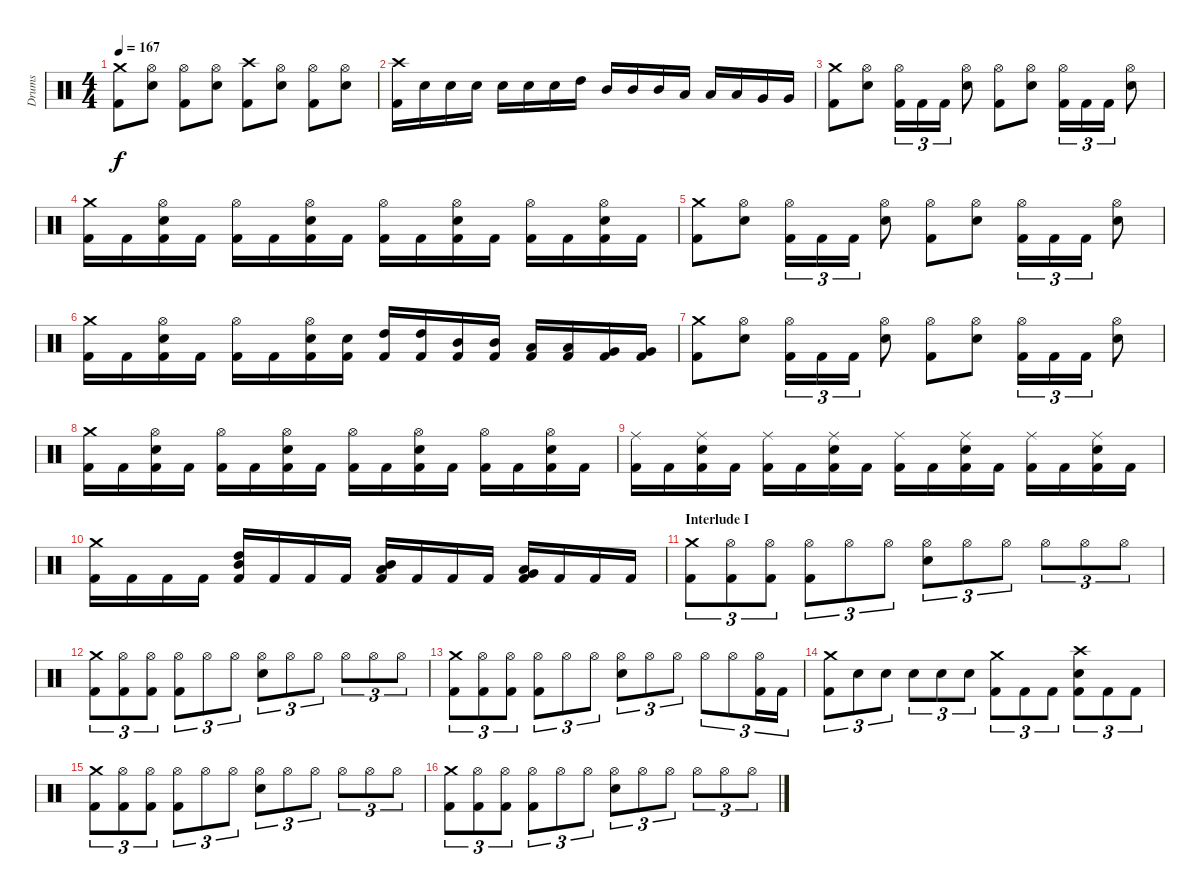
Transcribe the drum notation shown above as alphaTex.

\track ("Drums" "Drums") {instrument percussion}
\staff {score}
\articulation defaults
\ts (4 4)
\tempo 167
\clef neutral
\ks c
("Kick (hit) 2" "Crash medium (hit)").8{dy f} ("Electric Snare (hit)" "Hi-Hat (open)").8 ("Kick (hit) 2" "Hi-Hat (open)").8 ("Electric Snare (hit)" "Hi-Hat (open)").8 ("Kick (hit) 2" "Crash high (hit)").8 ("Electric Snare (hit)" "Hi-Hat (open)").8 ("Kick (hit) 2" "Hi-Hat (open)").8 ("Electric Snare (hit)" "Hi-Hat (open)").8 |
("Kick (hit) 2" "Crash high (hit)").16 "Electric Snare (hit)".16 "Electric Snare (hit)".16 "Electric Snare (hit)".16 "Electric Snare (hit)".16 "Electric Snare (hit)".16 "Electric Snare (hit)".16 "High Tom (hit)".16 "Mid Tom (hit)".16 "Mid Tom (hit)".16 "Mid Tom (hit)".16 "Low Tom (hit)".16 "Low Tom (hit)".16 "Low Tom (hit)".16 "Very Low Tom (hit)".16 "Very Low Tom (hit)".16 |
("Kick (hit) 2" "Crash medium (hit)").8 ("Electric Snare (hit)" "Hi-Hat (open)").8 ("Kick (hit) 2" "Hi-Hat (open)").16{tu (3 2)} "Kick (hit) 2".16{tu (3 2)} "Kick (hit) 2".16{tu (3 2)} ("Electric Snare (hit)" "Hi-Hat (open)").8 ("Kick (hit) 2" "Hi-Hat (open)").8 ("Electric Snare (hit)" "Hi-Hat (open)").8 ("Kick (hit) 2" "Hi-Hat (open)").16{tu (3 2)} "Kick (hit) 2".16{tu (3 2)} "Kick (hit) 2".16{tu (3 2)} ("Electric Snare (hit)" "Hi-Hat (open)").8 |
("Kick (hit) 2" "Crash medium (hit)").16 "Kick (hit) 2".16 ("Kick (hit) 2" "Electric Snare (hit)" "Hi-Hat (open)").16 "Kick (hit) 2".16 ("Kick (hit) 2" "Hi-Hat (open)").16 "Kick (hit) 2".16 ("Kick (hit) 2" "Electric Snare (hit)" "Hi-Hat (open)").16 "Kick (hit) 2".16 ("Kick (hit) 2" "Hi-Hat (open)").16 "Kick (hit) 2".16 ("Kick (hit) 2" "Electric Snare (hit)" "Hi-Hat (open)").16 "Kick (hit) 2".16 ("Kick (hit) 2" "Hi-Hat (open)").16 "Kick (hit) 2".16 ("Kick (hit) 2" "Electric Snare (hit)" "Hi-Hat (open)").16 "Kick (hit) 2".16 |
("Kick (hit) 2" "Crash medium (hit)").8 ("Electric Snare (hit)" "Hi-Hat (open)").8 ("Kick (hit) 2" "Hi-Hat (open)").16{tu (3 2)} "Kick (hit) 2".16{tu (3 2)} "Kick (hit) 2".16{tu (3 2)} ("Electric Snare (hit)" "Hi-Hat (open)").8 ("Kick (hit) 2" "Hi-Hat (open)").8 ("Electric Snare (hit)" "Hi-Hat (open)").8 ("Kick (hit) 2" "Hi-Hat (open)").16{tu (3 2)} "Kick (hit) 2".16{tu (3 2)} "Kick (hit) 2".16{tu (3 2)} ("Electric Snare (hit)" "Hi-Hat (open)").8 |
("Kick (hit) 2" "Crash medium (hit)").16 "Kick (hit) 2".16 ("Kick (hit) 2" "Electric Snare (hit)" "Hi-Hat (open)").16 "Kick (hit) 2".16 ("Kick (hit) 2" "Hi-Hat (open)").16 "Kick (hit) 2".16 ("Kick (hit) 2" "Electric Snare (hit)" "Hi-Hat (open)").16 ("Kick (hit) 2" "Electric Snare (hit)").16 ("Kick (hit) 2" "High Tom (hit)").16 ("Kick (hit) 2" "High Tom (hit)").16 ("Kick (hit) 2" "Mid Tom (hit)").16 ("Kick (hit) 2" "Mid Tom (hit)").16 ("Kick (hit) 2" "Low Tom (hit)").16 ("Kick (hit) 2" "Low Tom (hit)").16 ("Kick (hit) 2" "Very Low Tom (hit)").16 ("Kick (hit) 2" "Very Low Tom (hit)").16 |
("Kick (hit) 2" "Crash medium (hit)").8 ("Electric Snare (hit)" "Hi-Hat (open)").8 ("Kick (hit) 2" "Hi-Hat (open)").16{tu (3 2)} "Kick (hit) 2".16{tu (3 2)} "Kick (hit) 2".16{tu (3 2)} ("Electric Snare (hit)" "Hi-Hat (open)").8 ("Kick (hit) 2" "Hi-Hat (open)").8 ("Electric Snare (hit)" "Hi-Hat (open)").8 ("Kick (hit) 2" "Hi-Hat (open)").16{tu (3 2)} "Kick (hit) 2".16{tu (3 2)} "Kick (hit) 2".16{tu (3 2)} ("Electric Snare (hit)" "Hi-Hat (open)").8 |
("Kick (hit) 2" "Crash medium (hit)").16 "Kick (hit) 2".16 ("Kick (hit) 2" "Electric Snare (hit)" "Hi-Hat (open)").16 "Kick (hit) 2".16 ("Kick (hit) 2" "Hi-Hat (open)").16 "Kick (hit) 2".16 ("Kick (hit) 2" "Electric Snare (hit)" "Hi-Hat (open)").16 "Kick (hit) 2".16 ("Kick (hit) 2" "Hi-Hat (open)").16 "Kick (hit) 2".16 ("Kick (hit) 2" "Electric Snare (hit)" "Hi-Hat (open)").16 "Kick (hit) 2".16 ("Kick (hit) 2" "Hi-Hat (open)").16 "Kick (hit) 2".16 ("Kick (hit) 2" "Electric Snare (hit)" "Hi-Hat (open)").16 "Kick (hit) 2".16 |
("Kick (hit) 2" "Ride (middle)").16 "Kick (hit) 2".16 ("Kick (hit) 2" "Electric Snare (hit)" "Ride (middle)").16 "Kick (hit) 2".16 ("Kick (hit) 2" "Ride (middle)").16 "Kick (hit) 2".16 ("Kick (hit) 2" "Electric Snare (hit)" "Ride (middle)").16 "Kick (hit) 2".16 ("Kick (hit) 2" "Ride (middle)").16 "Kick (hit) 2".16 ("Kick (hit) 2" "Electric Snare (hit)" "Ride (middle)").16 "Kick (hit) 2".16 ("Kick (hit) 2" "Ride (middle)").16 "Kick (hit) 2".16 ("Kick (hit) 2" "Electric Snare (hit)" "Ride (middle)").16 "Kick (hit) 2".16 |
("Kick (hit) 2" "Crash medium (hit)").16 "Kick (hit) 2".16 "Kick (hit) 2".16 "Kick (hit) 2".16 ("Kick (hit) 2" "Mid Tom (hit)" "High Tom (hit)").16 "Kick (hit) 2".16 "Kick (hit) 2".16 "Kick (hit) 2".16 ("Kick (hit) 2" "Low Tom (hit)" "Mid Tom (hit)").16 "Kick (hit) 2".16 "Kick (hit) 2".16 "Kick (hit) 2".16 ("Kick (hit) 2" "Very Low Tom (hit)" "Low Tom (hit)").16 "Kick (hit) 2".16 "Kick (hit) 2".16 "Kick (hit) 2".16 |
\section ("" "Interlude I")
("Kick (hit) 2" "Crash medium (hit)").8{tu (3 2)} ("Kick (hit) 2" "Hi-Hat (open)").8{tu (3 2)} ("Kick (hit) 2" "Hi-Hat (open)").8{tu (3 2)} ("Kick (hit) 2" "Hi-Hat (open)").8{tu (3 2)} "Hi-Hat (open)".8{tu (3 2)} "Hi-Hat (open)".8{tu (3 2)} ("Electric Snare (hit)" "Hi-Hat (open)").8{tu (3 2)} "Hi-Hat (open)".8{tu (3 2)} "Hi-Hat (open)".8{tu (3 2)} "Hi-Hat (open)".8{tu (3 2)} "Hi-Hat (open)".8{tu (3 2)} "Hi-Hat (open)".8{tu (3 2)} |
("Kick (hit) 2" "Crash medium (hit)").8{tu (3 2)} ("Kick (hit) 2" "Hi-Hat (open)").8{tu (3 2)} ("Kick (hit) 2" "Hi-Hat (open)").8{tu (3 2)} ("Kick (hit) 2" "Hi-Hat (open)").8{tu (3 2)} "Hi-Hat (open)".8{tu (3 2)} "Hi-Hat (open)".8{tu (3 2)} ("Electric Snare (hit)" "Hi-Hat (open)").8{tu (3 2)} "Hi-Hat (open)".8{tu (3 2)} "Hi-Hat (open)".8{tu (3 2)} "Hi-Hat (open)".8{tu (3 2)} "Hi-Hat (open)".8{tu (3 2)} "Hi-Hat (open)".8{tu (3 2)} |
("Kick (hit) 2" "Crash medium (hit)").8{tu (3 2)} ("Kick (hit) 2" "Hi-Hat (open)").8{tu (3 2)} ("Kick (hit) 2" "Hi-Hat (open)").8{tu (3 2)} ("Kick (hit) 2" "Hi-Hat (open)").8{tu (3 2)} "Hi-Hat (open)".8{tu (3 2)} "Hi-Hat (open)".8{tu (3 2)} ("Electric Snare (hit)" "Hi-Hat (open)").8{tu (3 2)} "Hi-Hat (open)".8{tu (3 2)} "Hi-Hat (open)".8{tu (3 2)} "Hi-Hat (open)".8{tu (3 2)} "Hi-Hat (open)".8{tu (3 2)} ("Kick (hit) 2" "Hi-Hat (open)").16{tu (3 2)} "Kick (hit) 2".16{tu (3 2)} |
("Kick (hit) 2" "Crash medium (hit)").8{tu (3 2)} "Electric Snare (hit)".8{tu (3 2)} "Electric Snare (hit)".8{tu (3 2)} "Electric Snare (hit)".8{tu (3 2)} "Electric Snare (hit)".8{tu (3 2)} "Electric Snare (hit)".8{tu (3 2)} ("Kick (hit) 2" "Crash medium (hit)").8{tu (3 2)} "Kick (hit) 2".8{tu (3 2)} "Kick (hit) 2".8{tu (3 2)} ("Kick (hit) 2" "Electric Snare (hit)" "Crash high (hit)").8{tu (3 2)} "Kick (hit) 2".8{tu (3 2)} "Kick (hit) 2".8{tu (3 2)} |
("Kick (hit) 2" "Crash medium (hit)").8{tu (3 2)} ("Kick (hit) 2" "Hi-Hat (open)").8{tu (3 2)} ("Kick (hit) 2" "Hi-Hat (open)").8{tu (3 2)} ("Kick (hit) 2" "Hi-Hat (open)").8{tu (3 2)} "Hi-Hat (open)".8{tu (3 2)} "Hi-Hat (open)".8{tu (3 2)} ("Electric Snare (hit)" "Hi-Hat (open)").8{tu (3 2)} "Hi-Hat (open)".8{tu (3 2)} "Hi-Hat (open)".8{tu (3 2)} "Hi-Hat (open)".8{tu (3 2)} "Hi-Hat (open)".8{tu (3 2)} "Hi-Hat (open)".8{tu (3 2)} |
("Kick (hit) 2" "Crash medium (hit)").8{tu (3 2)} ("Kick (hit) 2" "Hi-Hat (open)").8{tu (3 2)} ("Kick (hit) 2" "Hi-Hat (open)").8{tu (3 2)} ("Kick (hit) 2" "Hi-Hat (open)").8{tu (3 2)} "Hi-Hat (open)".8{tu (3 2)} "Hi-Hat (open)".8{tu (3 2)} ("Electric Snare (hit)" "Hi-Hat (open)").8{tu (3 2)} "Hi-Hat (open)".8{tu (3 2)} "Hi-Hat (open)".8{tu (3 2)} "Hi-Hat (open)".8{tu (3 2)} "Hi-Hat (open)".8{tu (3 2)} "Hi-Hat (open)".8{tu (3 2)}
